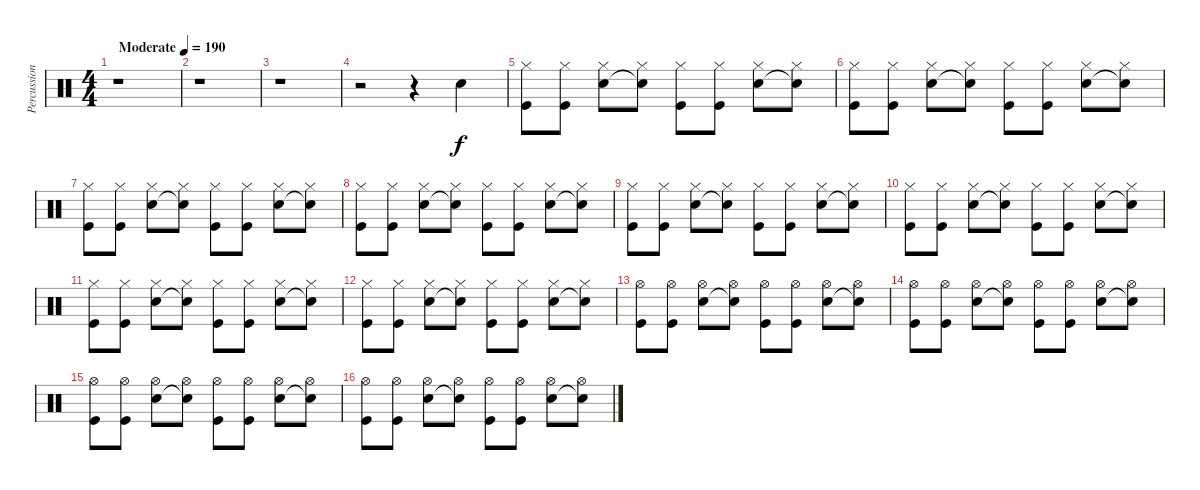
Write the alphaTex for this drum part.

\track ("Percussions" "Percussion") {instrument percussion}
\staff {score}
\articulation defaults
\ts (4 4)
\tempo (190 "Moderate")
\clef neutral
\ks c
r.1{dy f} |
r.1 |
r.1 |
r.2 r.4 "Electric Snare (hit)".4 |
("Hi-Hat (closed)" "Kick (hit)").8 ("Hi-Hat (closed)" "Kick (hit)").8 ("Hi-Hat (closed)" "Electric Snare (hit)").8 ("Hi-Hat (closed)" "Snare (hit)"{t}).8 ("Hi-Hat (closed)" "Kick (hit)").8 ("Hi-Hat (closed)" "Kick (hit)").8 ("Hi-Hat (closed)" "Electric Snare (hit)").8 ("Hi-Hat (closed)" "Snare (hit)"{t}).8 |
("Hi-Hat (closed)" "Kick (hit)").8 ("Hi-Hat (closed)" "Kick (hit)").8 ("Hi-Hat (closed)" "Electric Snare (hit)").8 ("Hi-Hat (closed)" "Snare (hit)"{t}).8 ("Hi-Hat (closed)" "Kick (hit)").8 ("Hi-Hat (closed)" "Kick (hit)").8 ("Hi-Hat (closed)" "Electric Snare (hit)").8 ("Hi-Hat (closed)" "Snare (hit)"{t}).8 |
("Hi-Hat (closed)" "Kick (hit)").8 ("Hi-Hat (closed)" "Kick (hit)").8 ("Hi-Hat (closed)" "Electric Snare (hit)").8 ("Hi-Hat (closed)" "Snare (hit)"{t}).8 ("Hi-Hat (closed)" "Kick (hit)").8 ("Hi-Hat (closed)" "Kick (hit)").8 ("Hi-Hat (closed)" "Electric Snare (hit)").8 ("Hi-Hat (closed)" "Snare (hit)"{t}).8 |
("Hi-Hat (closed)" "Kick (hit)").8 ("Hi-Hat (closed)" "Kick (hit)").8 ("Hi-Hat (closed)" "Electric Snare (hit)").8 ("Hi-Hat (closed)" "Snare (hit)"{t}).8 ("Hi-Hat (closed)" "Kick (hit)").8 ("Hi-Hat (closed)" "Kick (hit)").8 ("Hi-Hat (closed)" "Electric Snare (hit)").8 ("Hi-Hat (closed)" "Snare (hit)"{t}).8 |
("Hi-Hat (closed)" "Kick (hit)").8 ("Hi-Hat (closed)" "Kick (hit)").8 ("Hi-Hat (closed)" "Electric Snare (hit)").8 ("Hi-Hat (closed)" "Snare (hit)"{t}).8 ("Hi-Hat (closed)" "Kick (hit)").8 ("Hi-Hat (closed)" "Kick (hit)").8 ("Hi-Hat (closed)" "Electric Snare (hit)").8 ("Hi-Hat (closed)" "Snare (hit)"{t}).8 |
("Hi-Hat (closed)" "Kick (hit)").8 ("Hi-Hat (closed)" "Kick (hit)").8 ("Hi-Hat (closed)" "Electric Snare (hit)").8 ("Hi-Hat (closed)" "Snare (hit)"{t}).8 ("Hi-Hat (closed)" "Kick (hit)").8 ("Hi-Hat (closed)" "Kick (hit)").8 ("Hi-Hat (closed)" "Electric Snare (hit)").8 ("Hi-Hat (closed)" "Snare (hit)"{t}).8 |
("Hi-Hat (closed)" "Kick (hit)").8 ("Hi-Hat (closed)" "Kick (hit)").8 ("Hi-Hat (closed)" "Electric Snare (hit)").8 ("Hi-Hat (closed)" "Snare (hit)"{t}).8 ("Hi-Hat (closed)" "Kick (hit)").8 ("Hi-Hat (closed)" "Kick (hit)").8 ("Hi-Hat (closed)" "Electric Snare (hit)").8 ("Hi-Hat (closed)" "Snare (hit)"{t}).8 |
("Hi-Hat (closed)" "Kick (hit)").8 ("Hi-Hat (closed)" "Kick (hit)").8 ("Hi-Hat (closed)" "Electric Snare (hit)").8 ("Hi-Hat (closed)" "Snare (hit)"{t}).8 ("Hi-Hat (closed)" "Kick (hit)").8 ("Hi-Hat (closed)" "Kick (hit)").8 ("Hi-Hat (closed)" "Electric Snare (hit)").8 ("Hi-Hat (closed)" "Snare (hit)"{t}).8 |
("Hi-Hat (open)" "Kick (hit)").8 ("Hi-Hat (open)" "Kick (hit)").8 ("Hi-Hat (open)" "Electric Snare (hit)").8 ("Hi-Hat (open)" "Snare (hit)"{t}).8 ("Hi-Hat (open)" "Kick (hit)").8 ("Hi-Hat (open)" "Kick (hit)").8 ("Hi-Hat (open)" "Electric Snare (hit)").8 ("Hi-Hat (open)" "Snare (hit)"{t}).8 |
("Hi-Hat (open)" "Kick (hit)").8 ("Hi-Hat (open)" "Kick (hit)").8 ("Hi-Hat (open)" "Electric Snare (hit)").8 ("Hi-Hat (open)" "Snare (hit)"{t}).8 ("Hi-Hat (open)" "Kick (hit)").8 ("Hi-Hat (open)" "Kick (hit)").8 ("Hi-Hat (open)" "Electric Snare (hit)").8 ("Hi-Hat (open)" "Snare (hit)"{t}).8 |
("Hi-Hat (open)" "Kick (hit)").8 ("Hi-Hat (open)" "Kick (hit)").8 ("Hi-Hat (open)" "Electric Snare (hit)").8 ("Hi-Hat (open)" "Snare (hit)"{t}).8 ("Hi-Hat (open)" "Kick (hit)").8 ("Hi-Hat (open)" "Kick (hit)").8 ("Hi-Hat (open)" "Electric Snare (hit)").8 ("Hi-Hat (open)" "Snare (hit)"{t}).8 |
("Hi-Hat (open)" "Kick (hit)").8 ("Hi-Hat (open)" "Kick (hit)").8 ("Hi-Hat (open)" "Electric Snare (hit)").8 ("Hi-Hat (open)" "Snare (hit)"{t}).8 ("Hi-Hat (open)" "Kick (hit)").8 ("Hi-Hat (open)" "Kick (hit)").8 ("Hi-Hat (open)" "Electric Snare (hit)").8 ("Hi-Hat (open)" "Snare (hit)"{t}).8
